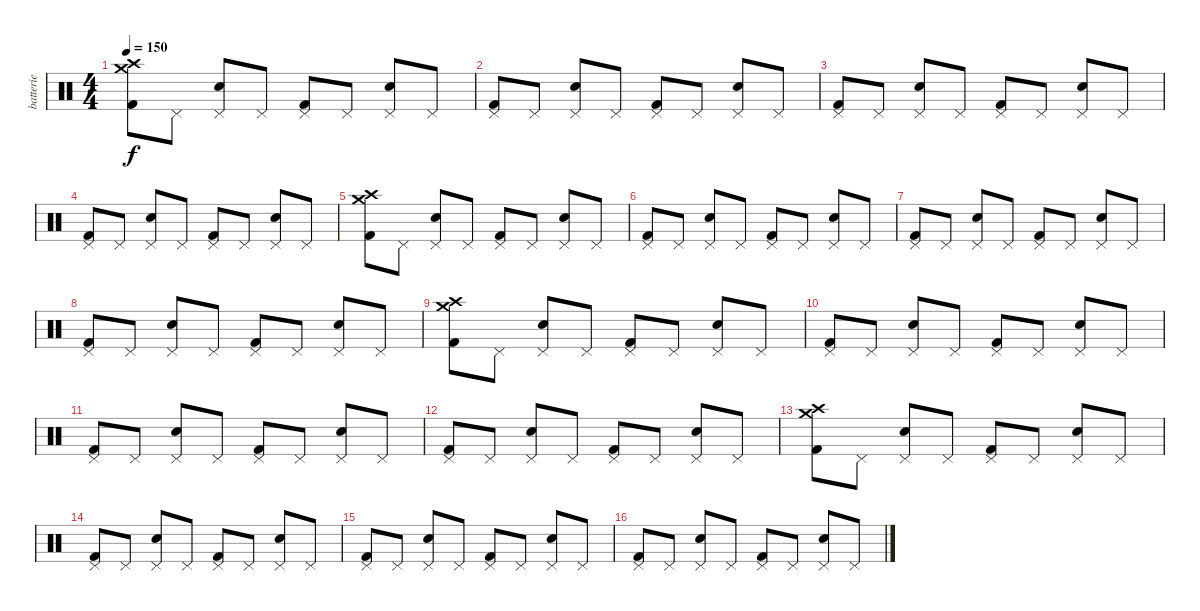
\track ("batterie" "batterie") {instrument percussion}
\staff {score}
\articulation defaults
\ts (4 4)
\tempo 150
\clef neutral
\ks c
("Crash high (hit)" "Crash medium (hit)" "Kick (hit) 2").8{dy f} "Pedal Hi-Hat (hit)".8 ("Pedal Hi-Hat (hit)" "Snare (hit) 2").8 "Pedal Hi-Hat (hit)".8 ("Pedal Hi-Hat (hit)" "Kick (hit) 2").8 "Pedal Hi-Hat (hit)".8 ("Pedal Hi-Hat (hit)" "Snare (hit) 2").8 "Pedal Hi-Hat (hit)".8 |
("Pedal Hi-Hat (hit)" "Kick (hit) 2").8 "Pedal Hi-Hat (hit)".8 ("Pedal Hi-Hat (hit)" "Snare (hit) 2").8 "Pedal Hi-Hat (hit)".8 ("Pedal Hi-Hat (hit)" "Kick (hit) 2").8 "Pedal Hi-Hat (hit)".8 ("Pedal Hi-Hat (hit)" "Snare (hit) 2").8 "Pedal Hi-Hat (hit)".8 |
("Pedal Hi-Hat (hit)" "Kick (hit) 2").8 "Pedal Hi-Hat (hit)".8 ("Pedal Hi-Hat (hit)" "Snare (hit) 2").8 "Pedal Hi-Hat (hit)".8 ("Pedal Hi-Hat (hit)" "Kick (hit) 2").8 "Pedal Hi-Hat (hit)".8 ("Pedal Hi-Hat (hit)" "Snare (hit) 2").8 "Pedal Hi-Hat (hit)".8 |
("Pedal Hi-Hat (hit)" "Kick (hit) 2").8 "Pedal Hi-Hat (hit)".8 ("Pedal Hi-Hat (hit)" "Snare (hit) 2").8 "Pedal Hi-Hat (hit)".8 ("Pedal Hi-Hat (hit)" "Kick (hit) 2").8 "Pedal Hi-Hat (hit)".8 ("Pedal Hi-Hat (hit)" "Snare (hit) 2").8 "Pedal Hi-Hat (hit)".8 |
("Crash high (hit)" "Crash medium (hit)" "Kick (hit) 2").8 "Pedal Hi-Hat (hit)".8 ("Pedal Hi-Hat (hit)" "Snare (hit) 2").8 "Pedal Hi-Hat (hit)".8 ("Pedal Hi-Hat (hit)" "Kick (hit) 2").8 "Pedal Hi-Hat (hit)".8 ("Pedal Hi-Hat (hit)" "Snare (hit) 2").8 "Pedal Hi-Hat (hit)".8 |
("Pedal Hi-Hat (hit)" "Kick (hit) 2").8 "Pedal Hi-Hat (hit)".8 ("Pedal Hi-Hat (hit)" "Snare (hit) 2").8 "Pedal Hi-Hat (hit)".8 ("Pedal Hi-Hat (hit)" "Kick (hit) 2").8 "Pedal Hi-Hat (hit)".8 ("Pedal Hi-Hat (hit)" "Snare (hit) 2").8 "Pedal Hi-Hat (hit)".8 |
("Pedal Hi-Hat (hit)" "Kick (hit) 2").8 "Pedal Hi-Hat (hit)".8 ("Pedal Hi-Hat (hit)" "Snare (hit) 2").8 "Pedal Hi-Hat (hit)".8 ("Pedal Hi-Hat (hit)" "Kick (hit) 2").8 "Pedal Hi-Hat (hit)".8 ("Pedal Hi-Hat (hit)" "Snare (hit) 2").8 "Pedal Hi-Hat (hit)".8 |
("Pedal Hi-Hat (hit)" "Kick (hit) 2").8 "Pedal Hi-Hat (hit)".8 ("Pedal Hi-Hat (hit)" "Snare (hit) 2").8 "Pedal Hi-Hat (hit)".8 ("Pedal Hi-Hat (hit)" "Kick (hit) 2").8 "Pedal Hi-Hat (hit)".8 ("Pedal Hi-Hat (hit)" "Snare (hit) 2").8 "Pedal Hi-Hat (hit)".8 |
("Crash high (hit)" "Crash medium (hit)" "Kick (hit) 2").8 "Pedal Hi-Hat (hit)".8 ("Pedal Hi-Hat (hit)" "Snare (hit) 2").8 "Pedal Hi-Hat (hit)".8 ("Pedal Hi-Hat (hit)" "Kick (hit) 2").8 "Pedal Hi-Hat (hit)".8 ("Pedal Hi-Hat (hit)" "Snare (hit) 2").8 "Pedal Hi-Hat (hit)".8 |
("Pedal Hi-Hat (hit)" "Kick (hit) 2").8 "Pedal Hi-Hat (hit)".8 ("Pedal Hi-Hat (hit)" "Snare (hit) 2").8 "Pedal Hi-Hat (hit)".8 ("Pedal Hi-Hat (hit)" "Kick (hit) 2").8 "Pedal Hi-Hat (hit)".8 ("Pedal Hi-Hat (hit)" "Snare (hit) 2").8 "Pedal Hi-Hat (hit)".8 |
("Pedal Hi-Hat (hit)" "Kick (hit) 2").8 "Pedal Hi-Hat (hit)".8 ("Pedal Hi-Hat (hit)" "Snare (hit) 2").8 "Pedal Hi-Hat (hit)".8 ("Pedal Hi-Hat (hit)" "Kick (hit) 2").8 "Pedal Hi-Hat (hit)".8 ("Pedal Hi-Hat (hit)" "Snare (hit) 2").8 "Pedal Hi-Hat (hit)".8 |
("Pedal Hi-Hat (hit)" "Kick (hit) 2").8 "Pedal Hi-Hat (hit)".8 ("Pedal Hi-Hat (hit)" "Snare (hit) 2").8 "Pedal Hi-Hat (hit)".8 ("Pedal Hi-Hat (hit)" "Kick (hit) 2").8 "Pedal Hi-Hat (hit)".8 ("Pedal Hi-Hat (hit)" "Snare (hit) 2").8 "Pedal Hi-Hat (hit)".8 |
("Crash high (hit)" "Crash medium (hit)" "Kick (hit) 2").8 "Pedal Hi-Hat (hit)".8 ("Pedal Hi-Hat (hit)" "Snare (hit) 2").8 "Pedal Hi-Hat (hit)".8 ("Pedal Hi-Hat (hit)" "Kick (hit) 2").8 "Pedal Hi-Hat (hit)".8 ("Pedal Hi-Hat (hit)" "Snare (hit) 2").8 "Pedal Hi-Hat (hit)".8 |
("Pedal Hi-Hat (hit)" "Kick (hit) 2").8 "Pedal Hi-Hat (hit)".8 ("Pedal Hi-Hat (hit)" "Snare (hit) 2").8 "Pedal Hi-Hat (hit)".8 ("Pedal Hi-Hat (hit)" "Kick (hit) 2").8 "Pedal Hi-Hat (hit)".8 ("Pedal Hi-Hat (hit)" "Snare (hit) 2").8 "Pedal Hi-Hat (hit)".8 |
("Pedal Hi-Hat (hit)" "Kick (hit) 2").8 "Pedal Hi-Hat (hit)".8 ("Pedal Hi-Hat (hit)" "Snare (hit) 2").8 "Pedal Hi-Hat (hit)".8 ("Pedal Hi-Hat (hit)" "Kick (hit) 2").8 "Pedal Hi-Hat (hit)".8 ("Pedal Hi-Hat (hit)" "Snare (hit) 2").8 "Pedal Hi-Hat (hit)".8 |
("Pedal Hi-Hat (hit)" "Kick (hit) 2").8 "Pedal Hi-Hat (hit)".8 ("Pedal Hi-Hat (hit)" "Snare (hit) 2").8 "Pedal Hi-Hat (hit)".8 ("Pedal Hi-Hat (hit)" "Kick (hit) 2").8 "Pedal Hi-Hat (hit)".8 ("Pedal Hi-Hat (hit)" "Snare (hit) 2").8 "Pedal Hi-Hat (hit)".8
